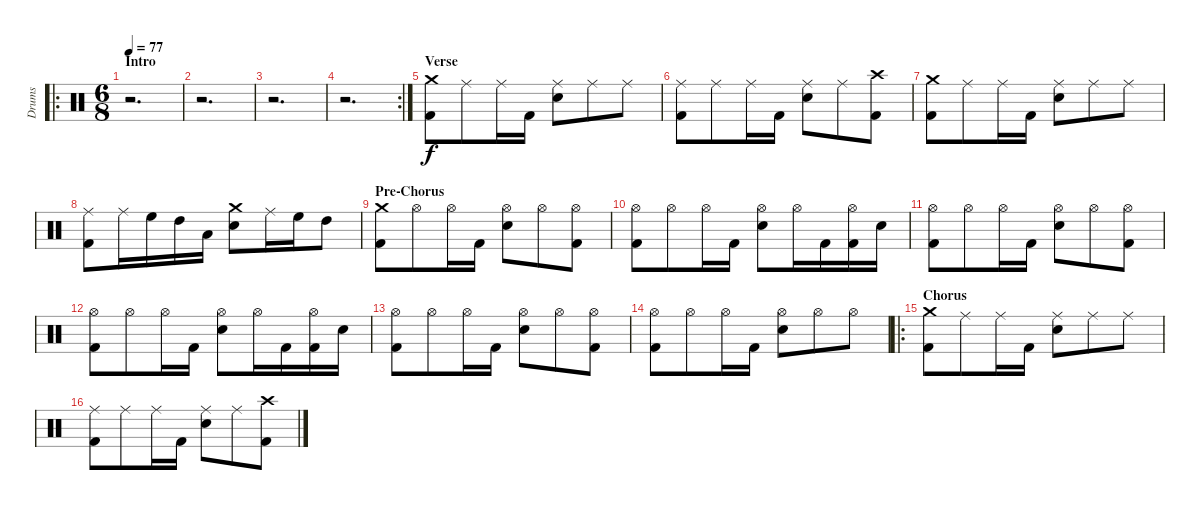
\track ("Drums" "Drums") {instrument percussion}
\staff {score}
\articulation defaults
\ro
\ts (6 8)
\section ("" "Intro")
\tempo 77
\clef neutral
\ks c
r.2{d dy f} |
r.2{d} |
r.2{d} |
\rc 2
r.2{d} |
\section ("" "Verse")
("Crash medium (hit)" "Kick (hit) 2").8 "Ride (middle)".8 "Ride (middle)".16 "Kick (hit) 2".16 ("Ride (middle)" "Snare (hit) 2").8 "Ride (middle)".8 "Ride (middle)".8 |
("Ride (middle)" "Kick (hit) 2").8 "Ride (middle)".8 "Ride (middle)".16 "Kick (hit) 2".16 ("Ride (middle)" "Snare (hit) 2").8 "Ride (middle)".8 ("Crash high (hit)" "Kick (hit) 2").8 |
("Crash medium (hit)" "Kick (hit) 2").8 "Ride (middle)".8 "Ride (middle)".16 "Kick (hit) 2".16 ("Ride (middle)" "Snare (hit) 2").8 "Ride (middle)".8 "Ride (middle)".8 |
("Ride (middle)" "Kick (hit) 2").8 "Ride (middle)".16 "High Floor Tom (hit)".16 "High Tom (hit)".16 "Low Floor Tom (hit)".16 ("Crash medium (hit)" "Snare (hit) 2").8 "Ride (middle)".16 "High Floor Tom (hit)".16 "High Tom (hit)".8 |
\section ("" "Pre-Chorus")
("Crash medium (hit)" "Kick (hit) 2").8 "Hi-Hat (open)".8 "Hi-Hat (open)".16 "Kick (hit) 2".16 ("Hi-Hat (open)" "Snare (hit) 2").8 "Hi-Hat (open)".8 ("Hi-Hat (open)" "Kick (hit) 2").8 |
("Hi-Hat (open)" "Kick (hit) 2").8 "Hi-Hat (open)".8 "Hi-Hat (open)".16 "Kick (hit) 2".16 ("Hi-Hat (open)" "Snare (hit) 2").8 "Hi-Hat (open)".16 "Kick (hit) 2".16 ("Hi-Hat (open)" "Kick (hit) 2").16 "Snare (hit) 2".16 |
("Hi-Hat (open)" "Kick (hit) 2").8 "Hi-Hat (open)".8 "Hi-Hat (open)".16 "Kick (hit) 2".16 ("Hi-Hat (open)" "Snare (hit) 2").8 "Hi-Hat (open)".8 ("Hi-Hat (open)" "Kick (hit) 2").8 |
("Hi-Hat (open)" "Kick (hit) 2").8 "Hi-Hat (open)".8 "Hi-Hat (open)".16 "Kick (hit) 2".16 ("Hi-Hat (open)" "Snare (hit) 2").8 "Hi-Hat (open)".16 "Kick (hit) 2".16 ("Hi-Hat (open)" "Kick (hit) 2").16 "Snare (hit) 2".16 |
("Hi-Hat (open)" "Kick (hit) 2").8 "Hi-Hat (open)".8 "Hi-Hat (open)".16 "Kick (hit) 2".16 ("Hi-Hat (open)" "Snare (hit) 2").8 "Hi-Hat (open)".8 ("Hi-Hat (open)" "Kick (hit) 2").8 |
("Hi-Hat (open)" "Kick (hit) 2").8 "Hi-Hat (open)".8 "Hi-Hat (open)".16 "Kick (hit) 2".16 ("Hi-Hat (open)" "Snare (hit) 2").8 "Hi-Hat (open)".8 "Hi-Hat (open)".8 |
\ro
\section ("" "Chorus")
("Crash medium (hit)" "Kick (hit) 2").8 "Ride (middle)".8 "Ride (middle)".16 "Kick (hit) 2".16 ("Ride (middle)" "Snare (hit) 2").8 "Ride (middle)".8 "Ride (middle)".8 |
("Ride (middle)" "Kick (hit) 2").8 "Ride (middle)".8 "Ride (middle)".16 "Kick (hit) 2".16 ("Ride (middle)" "Snare (hit) 2").8 "Ride (middle)".8 ("Crash high (hit)" "Kick (hit) 2").8
